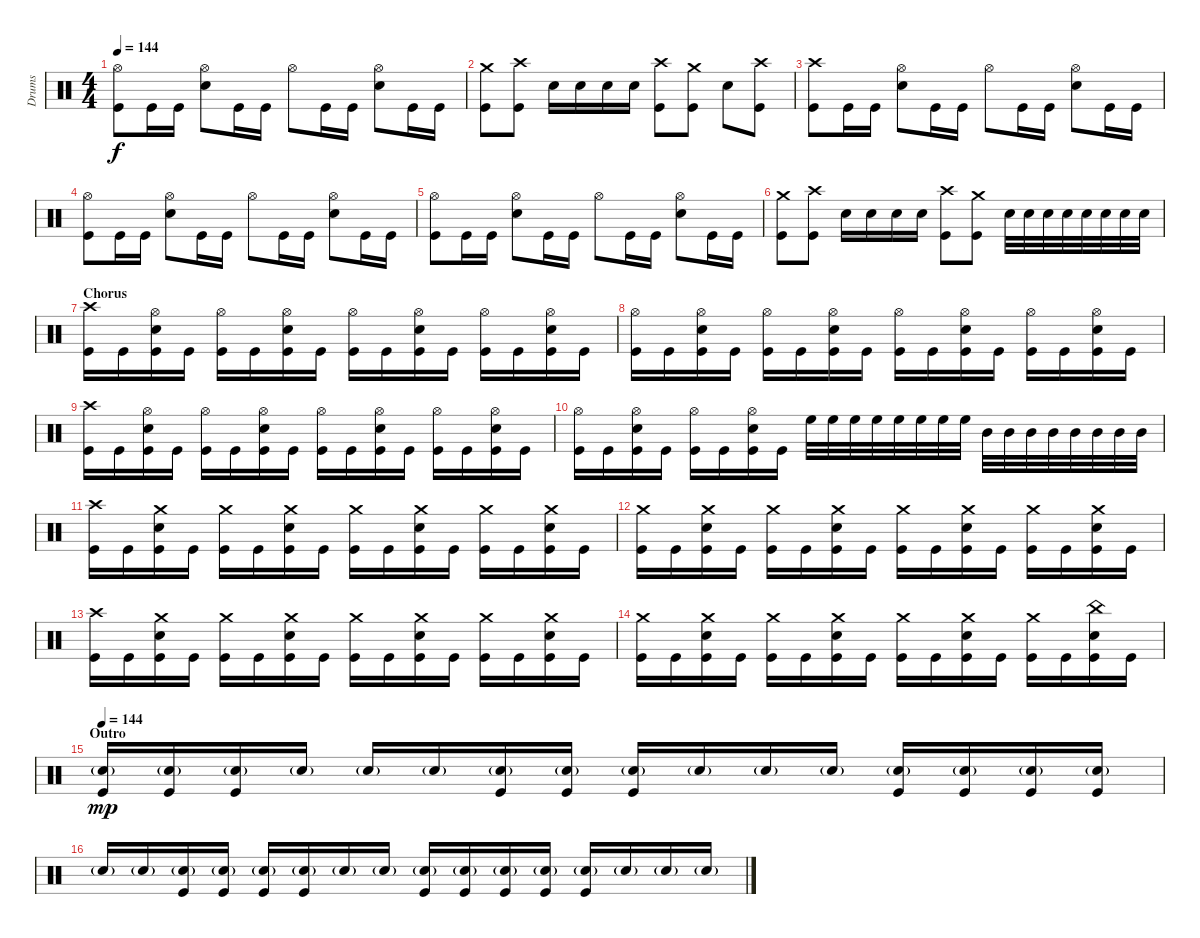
\track ("Drums" "Drums") {instrument percussion}
\staff {score}
\articulation defaults
\ts (4 4)
\tempo 144
\clef neutral
\ks c
("Hi-Hat (open)" "Kick (hit)").8{dy f} "Kick (hit)".16 "Kick (hit)".16 ("Hi-Hat (open)" "Electric Snare (hit)").8 "Kick (hit)".16 "Kick (hit)".16 "Hi-Hat (open)".8 "Kick (hit)".16 "Kick (hit)".16 ("Hi-Hat (open)" "Electric Snare (hit)").8 "Kick (hit)".16 "Kick (hit)".16 |
("Crash medium (hit)" "Kick (hit)").8 ("Crash high (hit)" "Kick (hit)").8 "Electric Snare (hit)".16 "Electric Snare (hit)".16 "Electric Snare (hit)".16 "Electric Snare (hit)".16 ("Crash high (hit)" "Kick (hit)").8 ("Crash medium (hit)" "Kick (hit)").8 "Electric Snare (hit)".8 ("Crash high (hit)" "Kick (hit)").8 |
("Crash high (hit)" "Kick (hit)").8 "Kick (hit)".16 "Kick (hit)".16 ("Hi-Hat (open)" "Electric Snare (hit)").8 "Kick (hit)".16 "Kick (hit)".16 "Hi-Hat (open)".8 "Kick (hit)".16 "Kick (hit)".16 ("Hi-Hat (open)" "Electric Snare (hit)").8 "Kick (hit)".16 "Kick (hit)".16 |
("Hi-Hat (open)" "Kick (hit)").8 "Kick (hit)".16 "Kick (hit)".16 ("Hi-Hat (open)" "Electric Snare (hit)").8 "Kick (hit)".16 "Kick (hit)".16 "Hi-Hat (open)".8 "Kick (hit)".16 "Kick (hit)".16 ("Hi-Hat (open)" "Electric Snare (hit)").8 "Kick (hit)".16 "Kick (hit)".16 |
("Hi-Hat (open)" "Kick (hit)").8 "Kick (hit)".16 "Kick (hit)".16 ("Hi-Hat (open)" "Electric Snare (hit)").8 "Kick (hit)".16 "Kick (hit)".16 "Hi-Hat (open)".8 "Kick (hit)".16 "Kick (hit)".16 ("Hi-Hat (open)" "Electric Snare (hit)").8 "Kick (hit)".16 "Kick (hit)".16 |
("Crash medium (hit)" "Kick (hit)").8 ("Crash high (hit)" "Kick (hit)").8 "Electric Snare (hit)".16 "Electric Snare (hit)".16 "Electric Snare (hit)".16 "Electric Snare (hit)".16 ("Crash high (hit)" "Kick (hit)").8 ("Crash medium (hit)" "Kick (hit)").8 "Electric Snare (hit)".32 "Electric Snare (hit)".32 "Electric Snare (hit)".32 "Electric Snare (hit)".32 "Electric Snare (hit)".32 "Electric Snare (hit)".32 "Electric Snare (hit)".32 "Electric Snare (hit)".32 |
\section ("" "Chorus")
("Crash high (hit)" "Kick (hit)").16 "Kick (hit)".16 ("Hi-Hat (open)" "Electric Snare (hit)" "Kick (hit)").16 "Kick (hit)".16 ("Hi-Hat (open)" "Kick (hit)").16 "Kick (hit)".16 ("Hi-Hat (open)" "Electric Snare (hit)" "Kick (hit)").16 "Kick (hit)".16 ("Hi-Hat (open)" "Kick (hit)").16 "Kick (hit)".16 ("Hi-Hat (open)" "Electric Snare (hit)" "Kick (hit)").16 "Kick (hit)".16 ("Hi-Hat (open)" "Kick (hit)").16 "Kick (hit)".16 ("Hi-Hat (open)" "Electric Snare (hit)" "Kick (hit)").16 "Kick (hit)".16 |
("Hi-Hat (open)" "Kick (hit)").16 "Kick (hit)".16 ("Hi-Hat (open)" "Electric Snare (hit)" "Kick (hit)").16 "Kick (hit)".16 ("Hi-Hat (open)" "Kick (hit)").16 "Kick (hit)".16 ("Hi-Hat (open)" "Electric Snare (hit)" "Kick (hit)").16 "Kick (hit)".16 ("Hi-Hat (open)" "Kick (hit)").16 "Kick (hit)".16 ("Hi-Hat (open)" "Electric Snare (hit)" "Kick (hit)").16 "Kick (hit)".16 ("Hi-Hat (open)" "Kick (hit)").16 "Kick (hit)".16 ("Hi-Hat (open)" "Electric Snare (hit)" "Kick (hit)").16 "Kick (hit)".16 |
("Crash high (hit)" "Kick (hit)").16 "Kick (hit)".16 ("Hi-Hat (open)" "Electric Snare (hit)" "Kick (hit)").16 "Kick (hit)".16 ("Hi-Hat (open)" "Kick (hit)").16 "Kick (hit)".16 ("Hi-Hat (open)" "Electric Snare (hit)" "Kick (hit)").16 "Kick (hit)".16 ("Hi-Hat (open)" "Kick (hit)").16 "Kick (hit)".16 ("Hi-Hat (open)" "Electric Snare (hit)" "Kick (hit)").16 "Kick (hit)".16 ("Hi-Hat (open)" "Kick (hit)").16 "Kick (hit)".16 ("Hi-Hat (open)" "Electric Snare (hit)" "Kick (hit)").16 "Kick (hit)".16 |
("Hi-Hat (open)" "Kick (hit)").16 "Kick (hit)".16 ("Hi-Hat (open)" "Electric Snare (hit)" "Kick (hit)").16 "Kick (hit)".16 ("Hi-Hat (open)" "Kick (hit)").16 "Kick (hit)".16 ("Hi-Hat (open)" "Electric Snare (hit)" "Kick (hit)").16 "Kick (hit)".16 "High Floor Tom (hit)".32 "High Floor Tom (hit)".32 "High Floor Tom (hit)".32 "High Floor Tom (hit)".32 "High Floor Tom (hit)".32 "High Floor Tom (hit)".32 "High Floor Tom (hit)".32 "High Floor Tom (hit)".32 "Mid Tom (hit)".32 "Mid Tom (hit)".32 "Mid Tom (hit)".32 "Mid Tom (hit)".32 "Mid Tom (hit)".32 "Mid Tom (hit)".32 "Mid Tom (hit)".32 "Mid Tom (hit)".32 |
("Crash high (hit)" "Kick (hit)").16 "Kick (hit)".16 ("Crash medium (hit)" "Electric Snare (hit)" "Kick (hit)").16 "Kick (hit)".16 ("Crash medium (hit)" "Kick (hit)").16 "Kick (hit)".16 ("Crash medium (hit)" "Electric Snare (hit)" "Kick (hit)").16 "Kick (hit)".16 ("Crash medium (hit)" "Kick (hit)").16 "Kick (hit)".16 ("Crash medium (hit)" "Electric Snare (hit)" "Kick (hit)").16 "Kick (hit)".16 ("Crash medium (hit)" "Kick (hit)").16 "Kick (hit)".16 ("Crash medium (hit)" "Electric Snare (hit)" "Kick (hit)").16 "Kick (hit)".16 |
("Crash medium (hit)" "Kick (hit)").16 "Kick (hit)".16 ("Crash medium (hit)" "Electric Snare (hit)" "Kick (hit)").16 "Kick (hit)".16 ("Crash medium (hit)" "Kick (hit)").16 "Kick (hit)".16 ("Crash medium (hit)" "Electric Snare (hit)" "Kick (hit)").16 "Kick (hit)".16 ("Crash medium (hit)" "Kick (hit)").16 "Kick (hit)".16 ("Crash medium (hit)" "Electric Snare (hit)" "Kick (hit)").16 "Kick (hit)".16 ("Crash medium (hit)" "Kick (hit)").16 "Kick (hit)".16 ("Crash medium (hit)" "Electric Snare (hit)" "Kick (hit)").16 "Kick (hit)".16 |
("Crash high (hit)" "Kick (hit)").16 "Kick (hit)".16 ("Crash medium (hit)" "Electric Snare (hit)" "Kick (hit)").16 "Kick (hit)".16 ("Crash medium (hit)" "Kick (hit)").16 "Kick (hit)".16 ("Crash medium (hit)" "Electric Snare (hit)" "Kick (hit)").16 "Kick (hit)".16 ("Crash medium (hit)" "Kick (hit)").16 "Kick (hit)".16 ("Crash medium (hit)" "Electric Snare (hit)" "Kick (hit)").16 "Kick (hit)".16 ("Crash medium (hit)" "Kick (hit)").16 "Kick (hit)".16 ("Crash medium (hit)" "Electric Snare (hit)" "Kick (hit)").16 "Kick (hit)".16 |
("Crash medium (hit)" "Kick (hit)").16 "Kick (hit)".16 ("Crash medium (hit)" "Electric Snare (hit)" "Kick (hit)").16 "Kick (hit)".16 ("Crash medium (hit)" "Kick (hit)").16 "Kick (hit)".16 ("Crash medium (hit)" "Electric Snare (hit)" "Kick (hit)").16 "Kick (hit)".16 ("Crash medium (hit)" "Kick (hit)").16 "Kick (hit)".16 ("Crash medium (hit)" "Electric Snare (hit)" "Kick (hit)").16 "Kick (hit)".16 ("Crash medium (hit)" "Kick (hit)").16 "Kick (hit)".16 ("China (hit)" "Electric Snare (hit)" "Kick (hit)").16 "Kick (hit)".16 |
\section ("" "Outro")
\tempo 144
("Snare (hit) 2"{g} "Kick (hit)").16{dy mp} ("Snare (hit) 2"{g} "Kick (hit)").16 ("Snare (hit) 2"{g} "Kick (hit)").16 "Snare (hit) 2"{g}.16 "Snare (hit) 2"{g}.16 "Snare (hit) 2"{g}.16 ("Snare (hit) 2"{g} "Kick (hit)").16 ("Snare (hit) 2"{g} "Kick (hit)").16 ("Snare (hit) 2"{g} "Kick (hit)").16 "Snare (hit) 2"{g}.16 "Snare (hit) 2"{g}.16 "Snare (hit) 2"{g}.16 ("Snare (hit) 2"{g} "Kick (hit)").16 ("Snare (hit) 2"{g} "Kick (hit)").16 ("Snare (hit) 2"{g} "Kick (hit)").16 ("Snare (hit) 2"{g} "Kick (hit)").16 |
"Snare (hit) 2"{g}.16 "Snare (hit) 2"{g}.16 ("Snare (hit) 2"{g} "Kick (hit)").16 ("Snare (hit) 2"{g} "Kick (hit)").16 ("Snare (hit) 2"{g} "Kick (hit)").16 ("Snare (hit) 2"{g} "Kick (hit)").16 "Snare (hit) 2"{g}.16 "Snare (hit) 2"{g}.16 ("Snare (hit) 2"{g} "Kick (hit)").16 ("Snare (hit) 2"{g} "Kick (hit)").16 ("Snare (hit) 2"{g} "Kick (hit)").16 ("Snare (hit) 2"{g} "Kick (hit)").16 ("Snare (hit) 2"{g} "Kick (hit)").16 "Snare (hit) 2"{g}.16 "Snare (hit) 2"{g}.16 "Snare (hit) 2"{g}.16
